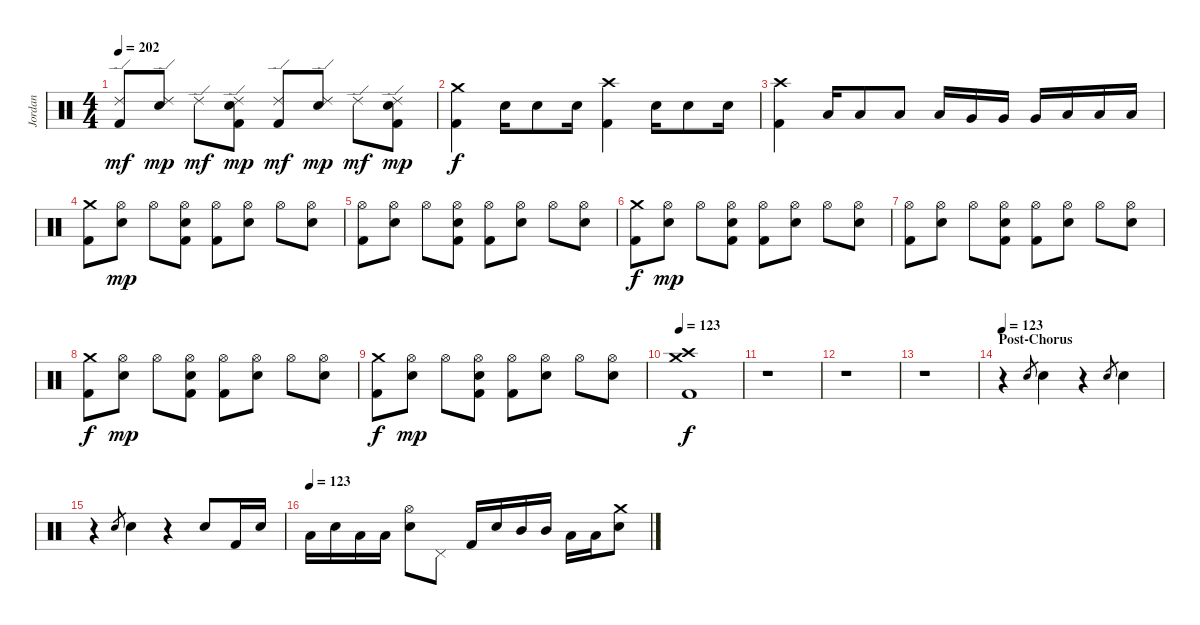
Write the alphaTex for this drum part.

\track ("Jordan" "Jordan") {instrument percussion}
\staff {score}
\articulation defaults
\ts (4 4)
\tempo 202
\clef neutral
\ks c
("Ride (edge) 2" "Kick (hit) 2").8{dy mf} ("Ride (edge) 2" "Electric Snare (hit)").8{dy mp} "Ride (edge) 2".8{dy mf} ("Ride (edge) 2" "Electric Snare (hit)" "Kick (hit) 2").8{dy mp} ("Ride (edge) 2" "Kick (hit) 2").8{dy mf} ("Ride (edge) 2" "Electric Snare (hit)").8{dy mp} "Ride (edge) 2".8{dy mf} ("Ride (edge) 2" "Electric Snare (hit)" "Kick (hit) 2").8{dy mp} |
("Crash medium (hit)" "Kick (hit) 2").4{dy f} "Electric Snare (hit)".16 "Electric Snare (hit)".8 "Electric Snare (hit)".16 ("Crash high (hit)" "Kick (hit) 2").4 "Electric Snare (hit)".16 "Electric Snare (hit)".8 "Electric Snare (hit)".16 |
("Crash high (hit)" "Kick (hit) 2").4 "Low Tom (hit)".16 "Low Tom (hit)".8 "Low Tom (hit)".8 "Low Tom (hit)".16 "Very Low Tom (hit)".16 "Very Low Tom (hit)".16 "Very Low Tom (hit)".16 "Low Floor Tom (hit)".16 "Low Floor Tom (hit)".16 "Low Floor Tom (hit)".16 |
("Crash medium (hit)" "Kick (hit) 2").8 ("Hi-Hat (open)" "Electric Snare (hit)").8{dy mp} "Hi-Hat (open)".8 ("Hi-Hat (open)" "Electric Snare (hit)" "Kick (hit) 2").8 ("Hi-Hat (open)" "Kick (hit) 2").8 ("Hi-Hat (open)" "Electric Snare (hit)").8 "Hi-Hat (open)".8 ("Hi-Hat (open)" "Electric Snare (hit)").8 |
("Hi-Hat (open)" "Kick (hit) 2").8 ("Hi-Hat (open)" "Electric Snare (hit)").8 "Hi-Hat (open)".8 ("Hi-Hat (open)" "Electric Snare (hit)" "Kick (hit) 2").8 ("Hi-Hat (open)" "Kick (hit) 2").8 ("Hi-Hat (open)" "Electric Snare (hit)").8 "Hi-Hat (open)".8 ("Hi-Hat (open)" "Electric Snare (hit)").8 |
("Crash medium (hit)" "Kick (hit) 2").8{dy f} ("Hi-Hat (open)" "Electric Snare (hit)").8{dy mp} "Hi-Hat (open)".8 ("Hi-Hat (open)" "Electric Snare (hit)" "Kick (hit) 2").8 ("Hi-Hat (open)" "Kick (hit) 2").8 ("Hi-Hat (open)" "Electric Snare (hit)").8 "Hi-Hat (open)".8 ("Hi-Hat (open)" "Electric Snare (hit)").8 |
("Hi-Hat (open)" "Kick (hit) 2").8 ("Hi-Hat (open)" "Electric Snare (hit)").8 "Hi-Hat (open)".8 ("Hi-Hat (open)" "Electric Snare (hit)" "Kick (hit) 2").8 ("Hi-Hat (open)" "Kick (hit) 2").8 ("Hi-Hat (open)" "Electric Snare (hit)").8 "Hi-Hat (open)".8 ("Hi-Hat (open)" "Electric Snare (hit)").8 |
("Crash medium (hit)" "Kick (hit) 2").8{dy f} ("Hi-Hat (open)" "Electric Snare (hit)").8{dy mp} "Hi-Hat (open)".8 ("Hi-Hat (open)" "Electric Snare (hit)" "Kick (hit) 2").8 ("Hi-Hat (open)" "Kick (hit) 2").8 ("Hi-Hat (open)" "Electric Snare (hit)").8 "Hi-Hat (open)".8 ("Hi-Hat (open)" "Electric Snare (hit)").8 |
("Crash medium (hit)" "Kick (hit) 2").8{dy f} ("Hi-Hat (open)" "Electric Snare (hit)").8{dy mp} "Hi-Hat (open)".8 ("Hi-Hat (open)" "Electric Snare (hit)" "Kick (hit) 2").8 ("Hi-Hat (open)" "Kick (hit) 2").8 ("Hi-Hat (open)" "Electric Snare (hit)").8 "Hi-Hat (open)".8 ("Hi-Hat (open)" "Electric Snare (hit)").8 |
\tempo 123
("Crash medium (hit)" "Crash high (hit)" "Kick (hit) 2").1{dy f} |
r.1 |
r.1 |
r.1 |
\section ("" "Post-Chorus")
\tempo 123
r.4 "Electric Snare (hit)".8{gr} "Electric Snare (hit)".4 r.4 "Electric Snare (hit)".8{gr} "Electric Snare (hit)".4 |
r.4 "Electric Snare (hit)".8{gr} "Electric Snare (hit)".4 r.4 "Electric Snare (hit)".8 "Kick (hit) 2".16 "Electric Snare (hit)".16 |
\tempo (123)
"Low Tom (hit)".16 "Electric Snare (hit)".16 "Low Tom (hit)".16 "Low Tom (hit)".16 ("Hi-Hat (open)" "Electric Snare (hit)").8 "Pedal Hi-Hat (hit)".8 "Kick (hit) 2".16 "Electric Snare (hit)".16 "Mid Tom (hit)".16 "Mid Tom (hit)".16 "Low Tom (hit)".16 "Low Tom (hit)".16 ("Crash medium (hit)" "Electric Snare (hit)").8
